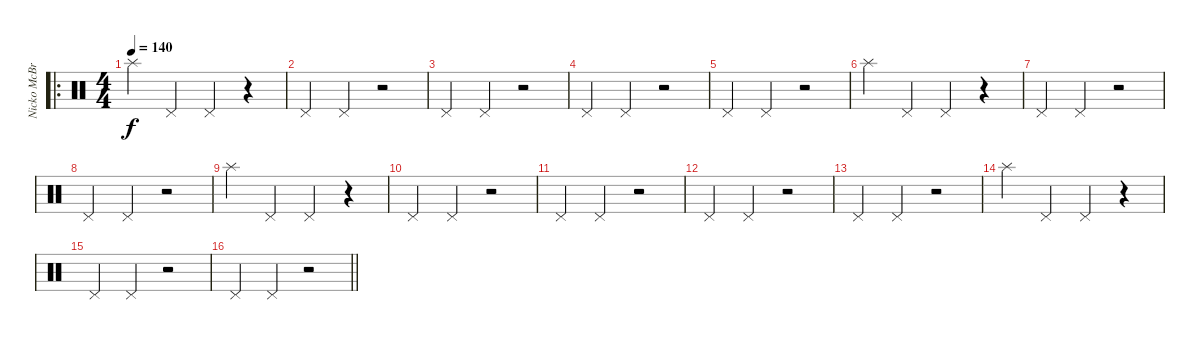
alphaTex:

\track ("Nicko McBrian (Drums)" "Nicko McBr") {instrument percussion}
\staff {score}
\articulation defaults
\ro
\ts (4 4)
\tempo 140
\clef neutral
\ks c "Splash (hit)".4{dy f} "Pedal Hi-Hat (hit)".4 "Pedal Hi-Hat (hit)".4
r.4 |
"Pedal Hi-Hat (hit)".4 "Pedal Hi-Hat (hit)".4 r.2 |
"Pedal Hi-Hat (hit)".4 "Pedal Hi-Hat (hit)".4 r.2 |
"Pedal Hi-Hat (hit)".4 "Pedal Hi-Hat (hit)".4 r.2 |
"Pedal Hi-Hat (hit)".4 "Pedal Hi-Hat (hit)".4 r.2 |
"Splash (hit)".4 "Pedal Hi-Hat (hit)".4 "Pedal Hi-Hat (hit)".4 r.4 |
"Pedal Hi-Hat (hit)".4 "Pedal Hi-Hat (hit)".4 r.2 |
"Pedal Hi-Hat (hit)".4 "Pedal Hi-Hat (hit)".4 r.2 |
"Splash (hit)".4 "Pedal Hi-Hat (hit)".4 "Pedal Hi-Hat (hit)".4 r.4 |
"Pedal Hi-Hat (hit)".4 "Pedal Hi-Hat (hit)".4 r.2 |
"Pedal Hi-Hat (hit)".4 "Pedal Hi-Hat (hit)".4 r.2 |
"Pedal Hi-Hat (hit)".4 "Pedal Hi-Hat (hit)".4 r.2 |
"Pedal Hi-Hat (hit)".4 "Pedal Hi-Hat (hit)".4 r.2 |
"Splash (hit)".4 "Pedal Hi-Hat (hit)".4 "Pedal Hi-Hat (hit)".4 r.4 |
"Pedal Hi-Hat (hit)".4 "Pedal Hi-Hat (hit)".4 r.2 |
\barLineRight lightlight "Pedal Hi-Hat (hit)".4 "Pedal Hi-Hat (hit)".4
r.2
